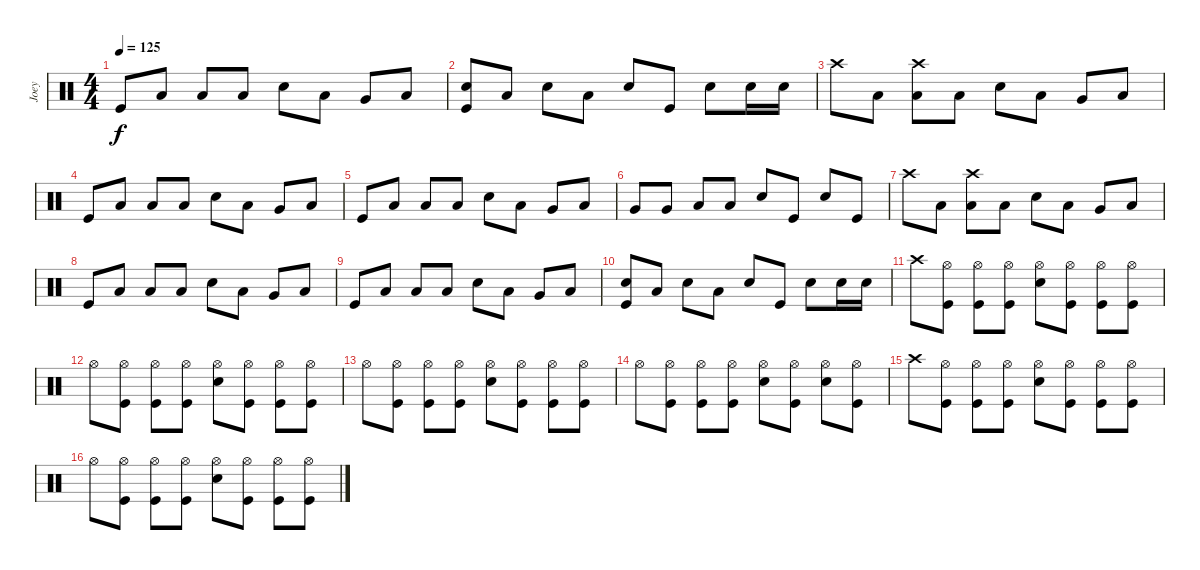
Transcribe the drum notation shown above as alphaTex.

\track ("Joey" "Joey") {instrument percussion}
\staff {score}
\articulation defaults
\ts (4 4)
\tempo 125
\clef neutral
\ks c "Kick (hit)".8{dy f} "Low Floor Tom (hit)".8 "Low Floor Tom (hit)".8 "Low Floor Tom (hit)".8 "Snare (hit) 2".8 "Low Floor Tom (hit)".8 "Very Low Tom (hit)".8 "Low Tom (hit)".8
|
("Snare (hit) 2" "Kick (hit)").8 "Low Floor Tom (hit)".8 "Snare (hit) 2".8 "Low Floor Tom (hit)".8 "Snare (hit) 2".8 "Kick (hit)".8 "Snare (hit) 2".8 "Snare (hit) 2".16 "Snare (hit) 2".16 |
"Crash high (hit)".8 "Low Floor Tom (hit)".8 ("Crash high (hit)" "Low Floor Tom (hit)").8 "Low Floor Tom (hit)".8 "Snare (hit) 2".8 "Low Floor Tom (hit)".8 "Very Low Tom (hit)".8 "Low Tom (hit)".8 |
"Kick (hit)".8 "Low Floor Tom (hit)".8 "Low Floor Tom (hit)".8 "Low Floor Tom (hit)".8 "Snare (hit) 2".8 "Low Floor Tom (hit)".8 "Very Low Tom (hit)".8 "Low Tom (hit)".8 |
"Kick (hit)".8 "Low Floor Tom (hit)".8 "Low Floor Tom (hit)".8 "Low Floor Tom (hit)".8 "Snare (hit) 2".8 "Low Floor Tom (hit)".8 "Very Low Tom (hit)".8 "Low Tom (hit)".8 |
"Very Low Tom (hit)".8 "Very Low Tom (hit)".8 "Low Tom (hit)".8 "Low Tom (hit)".8 "Snare (hit) 2".8 "Kick (hit)".8 "Snare (hit) 2".8 "Kick (hit)".8 |
"Crash high (hit)".8 "Low Floor Tom (hit)".8 ("Crash high (hit)" "Low Floor Tom (hit)").8 "Low Floor Tom (hit)".8 "Snare (hit) 2".8 "Low Floor Tom (hit)".8 "Very Low Tom (hit)".8 "Low Tom (hit)".8 |
"Kick (hit)".8 "Low Floor Tom (hit)".8 "Low Floor Tom (hit)".8 "Low Floor Tom (hit)".8 "Snare (hit) 2".8 "Low Floor Tom (hit)".8 "Very Low Tom (hit)".8 "Low Tom (hit)".8 |
"Kick (hit)".8 "Low Floor Tom (hit)".8 "Low Floor Tom (hit)".8 "Low Floor Tom (hit)".8 "Snare (hit) 2".8 "Low Floor Tom (hit)".8 "Very Low Tom (hit)".8 "Low Tom (hit)".8 |
("Snare (hit) 2" "Kick (hit)").8 "Low Floor Tom (hit)".8 "Snare (hit) 2".8 "Low Floor Tom (hit)".8 "Snare (hit) 2".8 "Kick (hit)".8 "Snare (hit) 2".8 "Snare (hit) 2".16 "Snare (hit) 2".16 |
"Crash high (hit)".8 ("Hi-Hat (open)" "Kick (hit)").8 ("Hi-Hat (open)" "Kick (hit)").8 ("Hi-Hat (open)" "Kick (hit)").8 ("Hi-Hat (open)" "Snare (hit) 2").8 ("Hi-Hat (open)" "Kick (hit)").8 ("Hi-Hat (open)" "Kick (hit)").8 ("Hi-Hat (open)" "Kick (hit)").8 |
"Hi-Hat (open)".8 ("Hi-Hat (open)" "Kick (hit)").8 ("Hi-Hat (open)" "Kick (hit)").8 ("Hi-Hat (open)" "Kick (hit)").8 ("Hi-Hat (open)" "Snare (hit) 2").8 ("Hi-Hat (open)" "Kick (hit)").8 ("Hi-Hat (open)" "Kick (hit)").8 ("Hi-Hat (open)" "Kick (hit)").8 |
"Hi-Hat (open)".8 ("Hi-Hat (open)" "Kick (hit)").8 ("Hi-Hat (open)" "Kick (hit)").8 ("Hi-Hat (open)" "Kick (hit)").8 ("Hi-Hat (open)" "Snare (hit) 2").8 ("Hi-Hat (open)" "Kick (hit)").8 ("Hi-Hat (open)" "Kick (hit)").8 ("Hi-Hat (open)" "Kick (hit)").8 |
"Hi-Hat (open)".8 ("Hi-Hat (open)" "Kick (hit)").8 ("Hi-Hat (open)" "Kick (hit)").8 ("Hi-Hat (open)" "Kick (hit)").8 ("Hi-Hat (open)" "Snare (hit) 2").8 ("Hi-Hat (open)" "Kick (hit)").8 ("Hi-Hat (open)" "Snare (hit) 2").8 ("Hi-Hat (open)" "Kick (hit)").8 |
"Crash high (hit)".8 ("Hi-Hat (open)" "Kick (hit)").8 ("Hi-Hat (open)" "Kick (hit)").8 ("Hi-Hat (open)" "Kick (hit)").8 ("Hi-Hat (open)" "Snare (hit) 2").8 ("Hi-Hat (open)" "Kick (hit)").8 ("Hi-Hat (open)" "Kick (hit)").8 ("Hi-Hat (open)" "Kick (hit)").8 |
"Hi-Hat (open)".8 ("Hi-Hat (open)" "Kick (hit)").8 ("Hi-Hat (open)" "Kick (hit)").8 ("Hi-Hat (open)" "Kick (hit)").8 ("Hi-Hat (open)" "Snare (hit) 2").8 ("Hi-Hat (open)" "Kick (hit)").8 ("Hi-Hat (open)" "Kick (hit)").8 ("Hi-Hat (open)" "Kick (hit)").8
